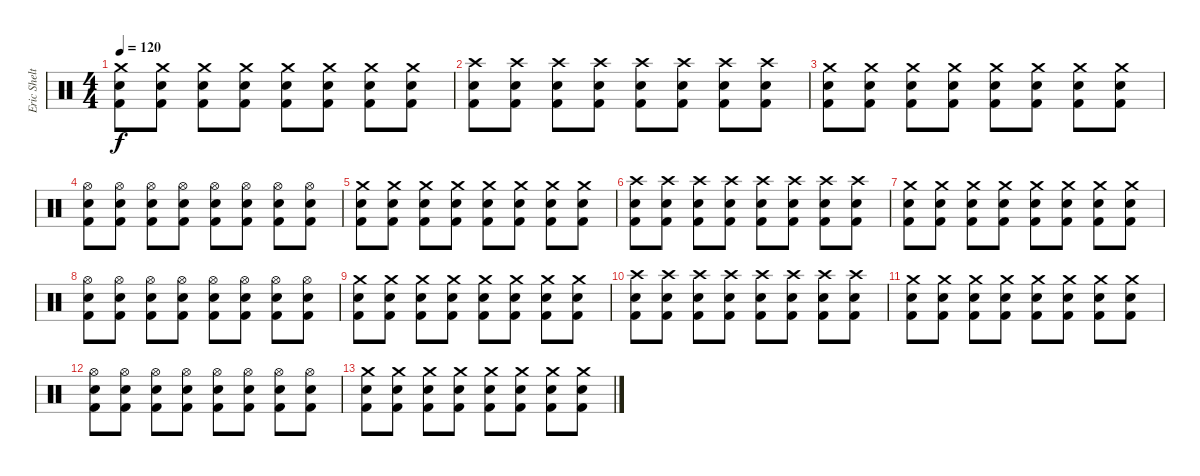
\track ("Eric Shelton" "Eric Shelt") {instrument percussion}
\staff {score}
\articulation defaults
\ts (4 4)
\tempo 120
\clef neutral
\ks c
("Kick (hit) 2" "Electric Snare (hit)" "Crash medium (hit)").8{dy f} ("Kick (hit) 2" "Electric Snare (hit)" "Crash medium (hit)").8 ("Kick (hit) 2" "Electric Snare (hit)" "Crash medium (hit)").8 ("Kick (hit) 2" "Electric Snare (hit)" "Crash medium (hit)").8 ("Kick (hit) 2" "Electric Snare (hit)" "Crash medium (hit)").8 ("Kick (hit) 2" "Electric Snare (hit)" "Crash medium (hit)").8 ("Kick (hit) 2" "Electric Snare (hit)" "Crash medium (hit)").8 ("Kick (hit) 2" "Electric Snare (hit)" "Crash medium (hit)").8 |
("Kick (hit) 2" "Electric Snare (hit)" "Crash high (hit)").8 ("Kick (hit) 2" "Electric Snare (hit)" "Crash high (hit)").8 ("Kick (hit) 2" "Electric Snare (hit)" "Crash high (hit)").8 ("Kick (hit) 2" "Electric Snare (hit)" "Crash high (hit)").8 ("Kick (hit) 2" "Electric Snare (hit)" "Crash high (hit)").8 ("Kick (hit) 2" "Electric Snare (hit)" "Crash high (hit)").8 ("Kick (hit) 2" "Electric Snare (hit)" "Crash high (hit)").8 ("Kick (hit) 2" "Electric Snare (hit)" "Crash high (hit)").8 |
("Kick (hit) 2" "Electric Snare (hit)" "Crash medium (hit)").8 ("Kick (hit) 2" "Electric Snare (hit)" "Crash medium (hit)").8 ("Kick (hit) 2" "Electric Snare (hit)" "Crash medium (hit)").8 ("Kick (hit) 2" "Electric Snare (hit)" "Crash medium (hit)").8 ("Kick (hit) 2" "Electric Snare (hit)" "Crash medium (hit)").8 ("Kick (hit) 2" "Electric Snare (hit)" "Crash medium (hit)").8 ("Kick (hit) 2" "Electric Snare (hit)" "Crash medium (hit)").8 ("Kick (hit) 2" "Electric Snare (hit)" "Crash medium (hit)").8 |
("Kick (hit) 2" "Electric Snare (hit)" "Hi-Hat (open)").8 ("Kick (hit) 2" "Electric Snare (hit)" "Hi-Hat (open)").8 ("Kick (hit) 2" "Electric Snare (hit)" "Hi-Hat (open)").8 ("Kick (hit) 2" "Electric Snare (hit)" "Hi-Hat (open)").8 ("Kick (hit) 2" "Electric Snare (hit)" "Hi-Hat (open)").8 ("Kick (hit) 2" "Electric Snare (hit)" "Hi-Hat (open)").8 ("Kick (hit) 2" "Electric Snare (hit)" "Hi-Hat (open)").8 ("Kick (hit) 2" "Electric Snare (hit)" "Hi-Hat (open)").8 |
("Kick (hit) 2" "Electric Snare (hit)" "Crash medium (hit)").8 ("Kick (hit) 2" "Electric Snare (hit)" "Crash medium (hit)").8 ("Kick (hit) 2" "Electric Snare (hit)" "Crash medium (hit)").8 ("Kick (hit) 2" "Electric Snare (hit)" "Crash medium (hit)").8 ("Kick (hit) 2" "Electric Snare (hit)" "Crash medium (hit)").8 ("Kick (hit) 2" "Electric Snare (hit)" "Crash medium (hit)").8 ("Kick (hit) 2" "Electric Snare (hit)" "Crash medium (hit)").8 ("Kick (hit) 2" "Electric Snare (hit)" "Crash medium (hit)").8 |
("Kick (hit) 2" "Electric Snare (hit)" "Crash high (hit)").8 ("Kick (hit) 2" "Electric Snare (hit)" "Crash high (hit)").8 ("Kick (hit) 2" "Electric Snare (hit)" "Crash high (hit)").8 ("Kick (hit) 2" "Electric Snare (hit)" "Crash high (hit)").8 ("Kick (hit) 2" "Electric Snare (hit)" "Crash high (hit)").8 ("Kick (hit) 2" "Electric Snare (hit)" "Crash high (hit)").8 ("Kick (hit) 2" "Electric Snare (hit)" "Crash high (hit)").8 ("Kick (hit) 2" "Electric Snare (hit)" "Crash high (hit)").8 |
("Kick (hit) 2" "Electric Snare (hit)" "Crash medium (hit)").8 ("Kick (hit) 2" "Electric Snare (hit)" "Crash medium (hit)").8 ("Kick (hit) 2" "Electric Snare (hit)" "Crash medium (hit)").8 ("Kick (hit) 2" "Electric Snare (hit)" "Crash medium (hit)").8 ("Kick (hit) 2" "Electric Snare (hit)" "Crash medium (hit)").8 ("Kick (hit) 2" "Electric Snare (hit)" "Crash medium (hit)").8 ("Kick (hit) 2" "Electric Snare (hit)" "Crash medium (hit)").8 ("Kick (hit) 2" "Electric Snare (hit)" "Crash medium (hit)").8 |
("Kick (hit) 2" "Electric Snare (hit)" "Hi-Hat (open)").8 ("Kick (hit) 2" "Electric Snare (hit)" "Hi-Hat (open)").8 ("Kick (hit) 2" "Electric Snare (hit)" "Hi-Hat (open)").8 ("Kick (hit) 2" "Electric Snare (hit)" "Hi-Hat (open)").8 ("Kick (hit) 2" "Electric Snare (hit)" "Hi-Hat (open)").8 ("Kick (hit) 2" "Electric Snare (hit)" "Hi-Hat (open)").8 ("Kick (hit) 2" "Electric Snare (hit)" "Hi-Hat (open)").8 ("Kick (hit) 2" "Electric Snare (hit)" "Hi-Hat (open)").8 |
("Kick (hit) 2" "Electric Snare (hit)" "Crash medium (hit)").8 ("Kick (hit) 2" "Electric Snare (hit)" "Crash medium (hit)").8 ("Kick (hit) 2" "Electric Snare (hit)" "Crash medium (hit)").8 ("Kick (hit) 2" "Electric Snare (hit)" "Crash medium (hit)").8 ("Kick (hit) 2" "Electric Snare (hit)" "Crash medium (hit)").8 ("Kick (hit) 2" "Electric Snare (hit)" "Crash medium (hit)").8 ("Kick (hit) 2" "Electric Snare (hit)" "Crash medium (hit)").8 ("Kick (hit) 2" "Electric Snare (hit)" "Crash medium (hit)").8 |
("Kick (hit) 2" "Electric Snare (hit)" "Crash high (hit)").8 ("Kick (hit) 2" "Electric Snare (hit)" "Crash high (hit)").8 ("Kick (hit) 2" "Electric Snare (hit)" "Crash high (hit)").8 ("Kick (hit) 2" "Electric Snare (hit)" "Crash high (hit)").8 ("Kick (hit) 2" "Electric Snare (hit)" "Crash high (hit)").8 ("Kick (hit) 2" "Electric Snare (hit)" "Crash high (hit)").8 ("Kick (hit) 2" "Electric Snare (hit)" "Crash high (hit)").8 ("Kick (hit) 2" "Electric Snare (hit)" "Crash high (hit)").8 |
("Kick (hit) 2" "Electric Snare (hit)" "Crash medium (hit)").8 ("Kick (hit) 2" "Electric Snare (hit)" "Crash medium (hit)").8 ("Kick (hit) 2" "Electric Snare (hit)" "Crash medium (hit)").8 ("Kick (hit) 2" "Electric Snare (hit)" "Crash medium (hit)").8 ("Kick (hit) 2" "Electric Snare (hit)" "Crash medium (hit)").8 ("Kick (hit) 2" "Electric Snare (hit)" "Crash medium (hit)").8 ("Kick (hit) 2" "Electric Snare (hit)" "Crash medium (hit)").8 ("Kick (hit) 2" "Electric Snare (hit)" "Crash medium (hit)").8 |
("Kick (hit) 2" "Electric Snare (hit)" "Hi-Hat (open)").8 ("Kick (hit) 2" "Electric Snare (hit)" "Hi-Hat (open)").8 ("Kick (hit) 2" "Electric Snare (hit)" "Hi-Hat (open)").8 ("Kick (hit) 2" "Electric Snare (hit)" "Hi-Hat (open)").8 ("Kick (hit) 2" "Electric Snare (hit)" "Hi-Hat (open)").8 ("Kick (hit) 2" "Electric Snare (hit)" "Hi-Hat (open)").8 ("Kick (hit) 2" "Electric Snare (hit)" "Hi-Hat (open)").8 ("Kick (hit) 2" "Electric Snare (hit)" "Hi-Hat (open)").8 |
("Kick (hit) 2" "Electric Snare (hit)" "Crash medium (hit)").8 ("Kick (hit) 2" "Electric Snare (hit)" "Crash medium (hit)").8 ("Kick (hit) 2" "Electric Snare (hit)" "Crash medium (hit)").8 ("Kick (hit) 2" "Electric Snare (hit)" "Crash medium (hit)").8 ("Kick (hit) 2" "Electric Snare (hit)" "Crash medium (hit)").8 ("Kick (hit) 2" "Electric Snare (hit)" "Crash medium (hit)").8 ("Kick (hit) 2" "Electric Snare (hit)" "Crash medium (hit)").8 ("Kick (hit) 2" "Electric Snare (hit)" "Crash medium (hit)").8
